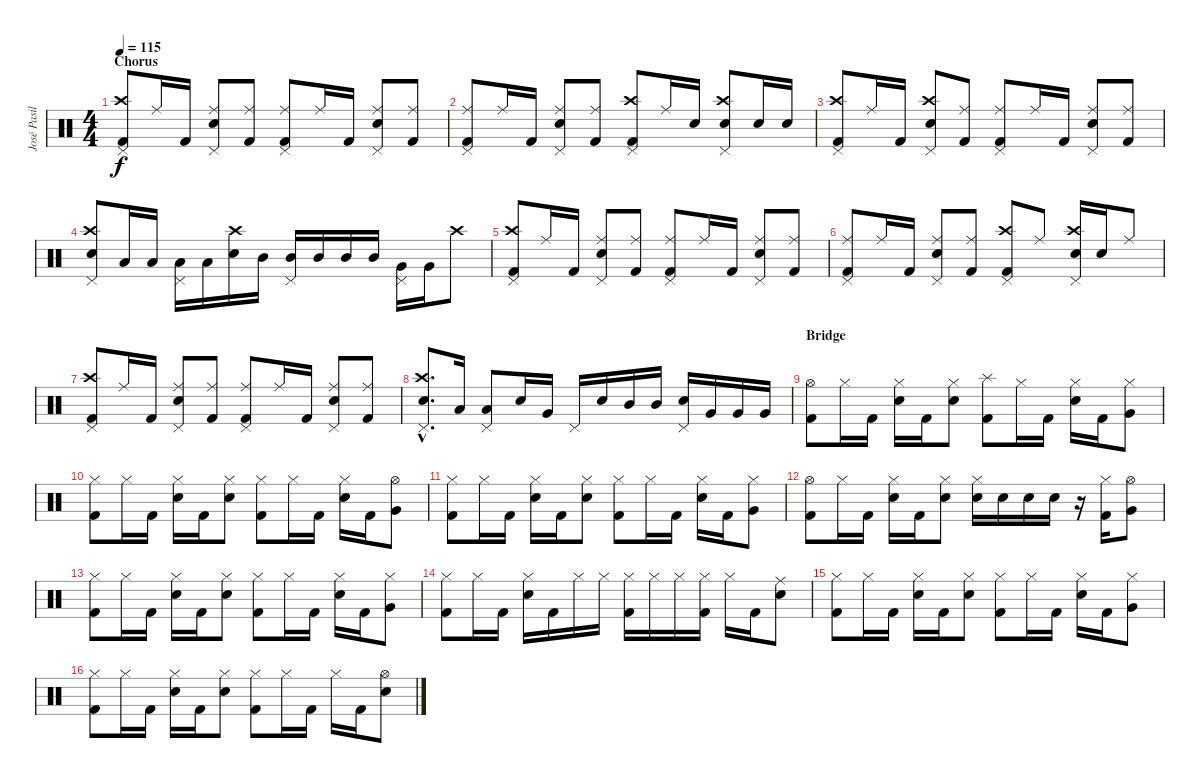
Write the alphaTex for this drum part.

\track ("José Pasillas" "José Pasil") {instrument percussion}
\staff {score}
\articulation defaults
\ts (4 4)
\section ("" "Chorus")
\tempo 115
\clef neutral
\ks c
("Pedal Hi-Hat (hit)" "Crash high (hit)" "Kick (hit) 2").8{dy f} "Ride (middle)".16 "Kick (hit) 2".16 ("Pedal Hi-Hat (hit)" "Ride (middle)" "Electric Snare (hit)").8 ("Ride (middle)" "Kick (hit) 2").8 ("Pedal Hi-Hat (hit)" "Ride (middle)" "Kick (hit) 2").8 "Ride (middle)".16 "Kick (hit) 2".16 ("Pedal Hi-Hat (hit)" "Ride (middle)" "Electric Snare (hit)").8 ("Ride (middle)" "Kick (hit) 2").8 |
("Pedal Hi-Hat (hit)" "Ride (middle)" "Kick (hit) 2").8 "Ride (middle)".16 "Kick (hit) 2".16 ("Pedal Hi-Hat (hit)" "Ride (middle)" "Electric Snare (hit)").8 ("Ride (middle)" "Kick (hit) 2").8 ("Pedal Hi-Hat (hit)" "Crash high (hit)" "Kick (hit) 2").8 "Ride (middle)".16 "Electric Snare (hit)".16 ("Pedal Hi-Hat (hit)" "Crash high (hit)" "Electric Snare (hit)").8 "Electric Snare (hit)".16 "Electric Snare (hit)".16 |
("Pedal Hi-Hat (hit)" "Crash high (hit)" "Kick (hit) 2").8 "Ride (middle)".16 "Kick (hit) 2".16 ("Pedal Hi-Hat (hit)" "Crash high (hit)" "Electric Snare (hit)").8 ("Ride (middle)" "Kick (hit) 2").8 ("Pedal Hi-Hat (hit)" "Ride (middle)" "Kick (hit) 2").8 "Ride (middle)".16 "Kick (hit) 2".16 ("Pedal Hi-Hat (hit)" "Ride (middle)" "Electric Snare (hit)").8 ("Ride (middle)" "Kick (hit) 2").8 |
("Pedal Hi-Hat (hit)" "Crash high (hit)" "Electric Snare (hit)").8 "Low Floor Tom (hit)".16 "Low Floor Tom (hit)".16 ("Pedal Hi-Hat (hit)" "Low Floor Tom (hit)").16 "Low Floor Tom (hit)".16 ("Crash high (hit)" "Electric Snare (hit)").16 "Mid Tom (hit)".16 ("Pedal Hi-Hat (hit)" "Mid Tom (hit)").16 "Mid Tom (hit)".16 "Mid Tom (hit)".16 "Mid Tom (hit)".16 ("Pedal Hi-Hat (hit)" "Very Low Tom (hit)").16 "Very Low Tom (hit)".16 "Crash high (hit)".8 |
("Pedal Hi-Hat (hit)" "Crash high (hit)" "Kick (hit) 2").8 "Ride (middle)".16 "Kick (hit) 2".16 ("Pedal Hi-Hat (hit)" "Ride (middle)" "Electric Snare (hit)").8 ("Ride (middle)" "Kick (hit) 2").8 ("Pedal Hi-Hat (hit)" "Ride (middle)" "Kick (hit) 2").8 "Ride (middle)".16 "Kick (hit) 2".16 ("Pedal Hi-Hat (hit)" "Ride (middle)" "Electric Snare (hit)").8 ("Ride (middle)" "Kick (hit) 2").8 |
("Pedal Hi-Hat (hit)" "Ride (middle)" "Kick (hit) 2").8 "Ride (middle)".16 "Kick (hit) 2".16 ("Pedal Hi-Hat (hit)" "Ride (middle)" "Electric Snare (hit)").8 ("Ride (middle)" "Kick (hit) 2").8 ("Pedal Hi-Hat (hit)" "Crash high (hit)" "Kick (hit) 2").8 "Ride (middle)".8 ("Pedal Hi-Hat (hit)" "Crash high (hit)" "Electric Snare (hit)").16 "Electric Snare (hit)".16 "Ride (middle)".8 |
("Pedal Hi-Hat (hit)" "Crash high (hit)" "Kick (hit) 2").8 "Ride (middle)".16 "Kick (hit) 2".16 ("Pedal Hi-Hat (hit)" "Ride (middle)" "Electric Snare (hit)").8 ("Ride (middle)" "Kick (hit) 2").8 ("Pedal Hi-Hat (hit)" "Ride (middle)" "Kick (hit) 2").8 "Ride (middle)".16 "Kick (hit) 2".16 ("Pedal Hi-Hat (hit)" "Ride (middle)" "Electric Snare (hit)").8 ("Ride (middle)" "Kick (hit) 2").8 |
("Pedal Hi-Hat (hit)"{hac} "Crash high (hit)"{hac} "Electric Snare (hit)"{hac}).8{d} "Low Floor Tom (hit)".16 ("Pedal Hi-Hat (hit)" "Low Floor Tom (hit)").8 "Electric Snare (hit)".16 "Very Low Tom (hit)".16 "Pedal Hi-Hat (hit)".16 "Electric Snare (hit)".16 "Mid Tom (hit)".16 "Mid Tom (hit)".16 ("Pedal Hi-Hat (hit)" "Electric Snare (hit)").16 "Very Low Tom (hit)".16 "Very Low Tom (hit)".16 "Very Low Tom (hit)".16 |
\section ("" "Bridge")
("Hi-Hat (open)" "Kick (hit) 2").8 "Hi-Hat (closed)".16 "Kick (hit) 2".16 ("Hi-Hat (closed)" "Electric Snare (hit)").16 "Kick (hit) 2".16 ("Hi-Hat (closed)" "Electric Snare (hit)").8 ("Splash (hit)" "Kick (hit) 2").8 "Hi-Hat (closed)".16 "Kick (hit) 2".16 ("Hi-Hat (closed)" "Electric Snare (hit)").16 "Kick (hit) 2".16 ("Hi-Hat (closed)" "Very Low Tom (hit)").8 |
("Hi-Hat (closed)" "Kick (hit) 2").8 "Hi-Hat (closed)".16 "Kick (hit) 2".16 ("Hi-Hat (closed)" "Electric Snare (hit)").16 "Kick (hit) 2".16 ("Hi-Hat (closed)" "Electric Snare (hit)").8 ("Hi-Hat (closed)" "Kick (hit) 2").8 "Hi-Hat (closed)".16 "Kick (hit) 2".16 ("Hi-Hat (closed)" "Electric Snare (hit)").16 "Kick (hit) 2".16 ("Hi-Hat (open)" "Very Low Tom (hit)").8 |
("Hi-Hat (closed)" "Kick (hit) 2").8 "Hi-Hat (closed)".16 "Kick (hit) 2".16 ("Hi-Hat (closed)" "Electric Snare (hit)").16 "Kick (hit) 2".16 ("Hi-Hat (closed)" "Electric Snare (hit)").8 ("Hi-Hat (closed)" "Kick (hit) 2").8 "Hi-Hat (closed)".16 "Kick (hit) 2".16 ("Hi-Hat (closed)" "Electric Snare (hit)").16 "Kick (hit) 2".16 ("Hi-Hat (closed)" "Very Low Tom (hit)").8 |
("Hi-Hat (open)" "Kick (hit) 2").8 "Hi-Hat (closed)".16 "Kick (hit) 2".16 ("Hi-Hat (closed)" "Electric Snare (hit)").16 "Kick (hit) 2".16 ("Hi-Hat (closed)" "Electric Snare (hit)").8 ("Hi-Hat (closed)" "Electric Snare (hit)").16 "Electric Snare (hit)".16 "Electric Snare (hit)".16 "Electric Snare (hit)".16 r.16 ("Hi-Hat (closed)" "Kick (hit) 2").16 ("Hi-Hat (open)" "Very Low Tom (hit)").8 |
("Hi-Hat (closed)" "Kick (hit) 2").8 "Hi-Hat (closed)".16 "Kick (hit) 2".16 ("Hi-Hat (closed)" "Electric Snare (hit)").16 "Kick (hit) 2".16 ("Hi-Hat (closed)" "Electric Snare (hit)").8 ("Hi-Hat (closed)" "Kick (hit) 2").8 "Hi-Hat (closed)".16 "Kick (hit) 2".16 ("Hi-Hat (closed)" "Electric Snare (hit)").16 "Kick (hit) 2".16 ("Hi-Hat (closed)" "Very Low Tom (hit)").8 |
("Hi-Hat (closed)" "Kick (hit) 2").8 "Hi-Hat (closed)".16 "Kick (hit) 2".16 ("Hi-Hat (closed)" "Electric Snare (hit)").16 "Kick (hit) 2".16 "Hi-Hat (closed)".16 "Hi-Hat (closed)".16 ("Hi-Hat (closed)" "Kick (hit) 2").16 "Hi-Hat (closed)".16 "Hi-Hat (closed)".16 ("Hi-Hat (closed)" "Kick (hit) 2").16 "Hi-Hat (closed)".16 "Kick (hit) 2".16 ("Ride (middle)" "Electric Snare (hit)").8 |
("Hi-Hat (closed)" "Kick (hit) 2").8 "Hi-Hat (closed)".16 "Kick (hit) 2".16 ("Hi-Hat (closed)" "Electric Snare (hit)").16 "Kick (hit) 2".16 ("Hi-Hat (closed)" "Electric Snare (hit)").8 ("Hi-Hat (closed)" "Kick (hit) 2").8 "Hi-Hat (closed)".16 "Kick (hit) 2".16 ("Hi-Hat (closed)" "Electric Snare (hit)").16 "Kick (hit) 2".16 ("Hi-Hat (closed)" "Very Low Tom (hit)").8 |
("Hi-Hat (closed)" "Kick (hit) 2").8 "Hi-Hat (closed)".16 "Kick (hit) 2".16 ("Hi-Hat (closed)" "Electric Snare (hit)").16 "Kick (hit) 2".16 ("Hi-Hat (closed)" "Electric Snare (hit)").8 ("Hi-Hat (closed)" "Kick (hit) 2").8 "Hi-Hat (closed)".16 "Kick (hit) 2".16 "Hi-Hat (closed)".16 "Kick (hit) 2".16 ("Hi-Hat (open)" "Electric Snare (hit)").8
